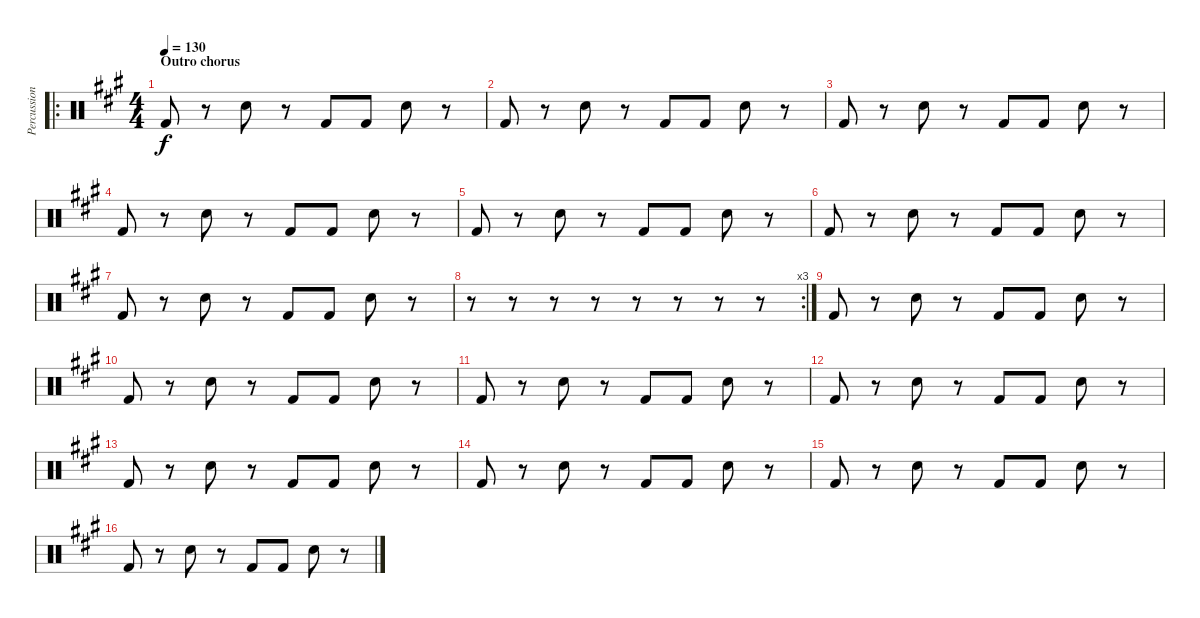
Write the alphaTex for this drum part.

\track ("Percussion" "Percussion") {instrument percussion}
\staff {score}
\articulation defaults
\ro
\ts (4 4)
\section ("" "Outro chorus")
\tempo 130
\clef neutral
\ks a "Kick (hit) 2".8{dy f}
r.8 "Snare (hit) 2".8 r.8 "Kick (hit) 2".8 "Kick (hit) 2".8 "Snare (hit) 2".8 r.8 |
"Kick (hit) 2".8 r.8 "Snare (hit) 2".8 r.8 "Kick (hit) 2".8 "Kick (hit) 2".8 "Snare (hit) 2".8 r.8 |
"Kick (hit) 2".8 r.8 "Snare (hit) 2".8 r.8 "Kick (hit) 2".8 "Kick (hit) 2".8 "Snare (hit) 2".8 r.8 |
"Kick (hit) 2".8 r.8 "Snare (hit) 2".8 r.8 "Kick (hit) 2".8 "Kick (hit) 2".8 "Snare (hit) 2".8 r.8 |
"Kick (hit) 2".8 r.8 "Snare (hit) 2".8 r.8 "Kick (hit) 2".8 "Kick (hit) 2".8 "Snare (hit) 2".8 r.8 |
"Kick (hit) 2".8 r.8 "Snare (hit) 2".8 r.8 "Kick (hit) 2".8 "Kick (hit) 2".8 "Snare (hit) 2".8 r.8 |
"Kick (hit) 2".8 r.8 "Snare (hit) 2".8 r.8 "Kick (hit) 2".8 "Kick (hit) 2".8 "Snare (hit) 2".8 r.8 |
\rc 3
r.8 r.8 r.8 r.8 r.8 r.8 r.8 r.8 |
"Kick (hit) 2".8 r.8 "Snare (hit) 2".8 r.8 "Kick (hit) 2".8 "Kick (hit) 2".8 "Snare (hit) 2".8 r.8 |
"Kick (hit) 2".8 r.8 "Snare (hit) 2".8 r.8 "Kick (hit) 2".8 "Kick (hit) 2".8 "Snare (hit) 2".8 r.8 |
"Kick (hit) 2".8 r.8 "Snare (hit) 2".8 r.8 "Kick (hit) 2".8 "Kick (hit) 2".8 "Snare (hit) 2".8 r.8 |
"Kick (hit) 2".8 r.8 "Snare (hit) 2".8 r.8 "Kick (hit) 2".8 "Kick (hit) 2".8 "Snare (hit) 2".8 r.8 |
"Kick (hit) 2".8 r.8 "Snare (hit) 2".8 r.8 "Kick (hit) 2".8 "Kick (hit) 2".8 "Snare (hit) 2".8 r.8 |
"Kick (hit) 2".8 r.8 "Snare (hit) 2".8 r.8 "Kick (hit) 2".8 "Kick (hit) 2".8 "Snare (hit) 2".8 r.8 |
"Kick (hit) 2".8 r.8 "Snare (hit) 2".8 r.8 "Kick (hit) 2".8 "Kick (hit) 2".8 "Snare (hit) 2".8 r.8 |
"Kick (hit) 2".8 r.8 "Snare (hit) 2".8 r.8 "Kick (hit) 2".8 "Kick (hit) 2".8 "Snare (hit) 2".8 r.8
